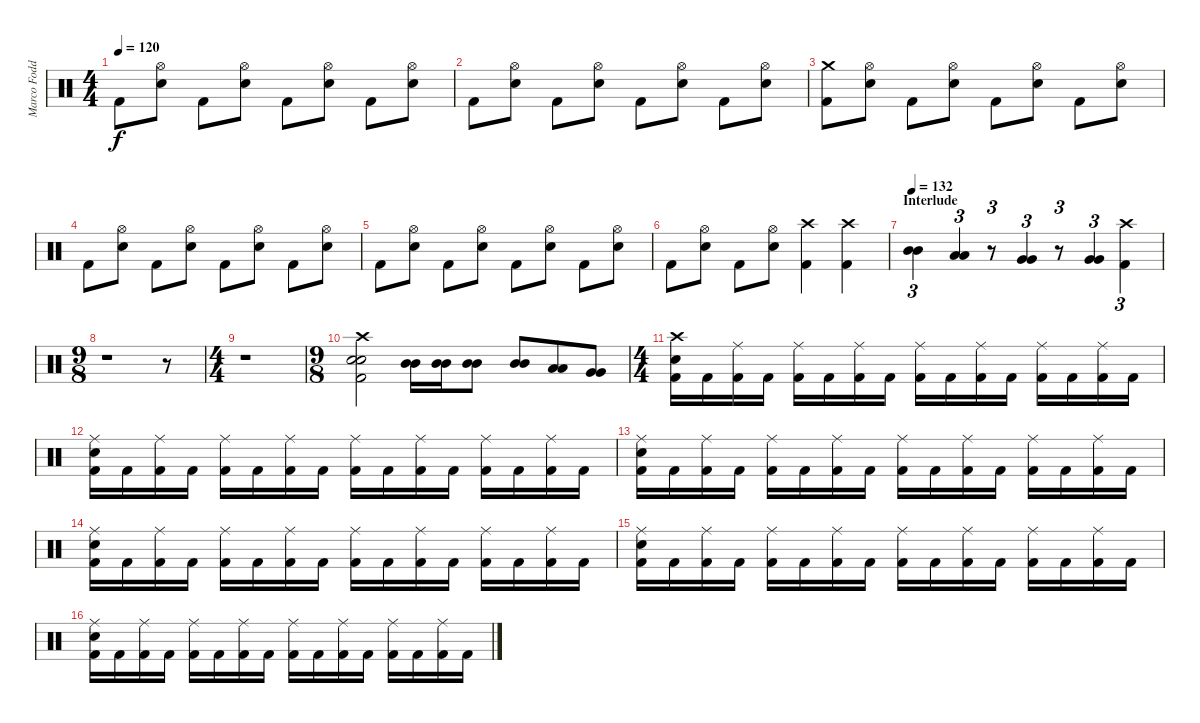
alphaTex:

\track ("Marco Foddis " "Marco Fodd") {instrument percussion}
\staff {score}
\articulation defaults
\ts (4 4)
\tempo 120
\clef neutral
\ks c "Kick (hit) 2".8{dy f}
("Hi-Hat (open)" "Electric Snare (hit)").8 "Kick (hit) 2".8 ("Hi-Hat (open)" "Electric Snare (hit)").8 "Kick (hit) 2".8 ("Hi-Hat (open)" "Electric Snare (hit)").8 "Kick (hit) 2".8 ("Hi-Hat (open)" "Electric Snare (hit)").8 |
"Kick (hit) 2".8 ("Hi-Hat (open)" "Electric Snare (hit)").8 "Kick (hit) 2".8 ("Hi-Hat (open)" "Electric Snare (hit)").8 "Kick (hit) 2".8 ("Hi-Hat (open)" "Electric Snare (hit)").8 "Kick (hit) 2".8 ("Hi-Hat (open)" "Electric Snare (hit)").8 |
("Crash medium (hit)" "Kick (hit) 2").8 ("Hi-Hat (open)" "Electric Snare (hit)").8 "Kick (hit) 2".8 ("Hi-Hat (open)" "Electric Snare (hit)").8 "Kick (hit) 2".8 ("Hi-Hat (open)" "Electric Snare (hit)").8 "Kick (hit) 2".8 ("Hi-Hat (open)" "Electric Snare (hit)").8 |
"Kick (hit) 2".8 ("Hi-Hat (open)" "Electric Snare (hit)").8 "Kick (hit) 2".8 ("Hi-Hat (open)" "Electric Snare (hit)").8 "Kick (hit) 2".8 ("Hi-Hat (open)" "Electric Snare (hit)").8 "Kick (hit) 2".8 ("Hi-Hat (open)" "Electric Snare (hit)").8 |
"Kick (hit) 2".8 ("Hi-Hat (open)" "Electric Snare (hit)").8 "Kick (hit) 2".8 ("Hi-Hat (open)" "Electric Snare (hit)").8 "Kick (hit) 2".8 ("Hi-Hat (open)" "Electric Snare (hit)").8 "Kick (hit) 2".8 ("Hi-Hat (open)" "Electric Snare (hit)").8 |
"Kick (hit) 2".8 ("Hi-Hat (open)" "Electric Snare (hit)").8 "Kick (hit) 2".8 ("Hi-Hat (open)" "Electric Snare (hit)").8 ("Crash high (hit)" "Kick (hit) 2").4 ("Crash high (hit)" "Kick (hit) 2").4 |
\section ("" "Interlude")
\tempo 132
("Mid Tom (hit)" "Mid Tom (hit)").4{tu (3 2)} ("Low Tom (hit)" "Low Tom (hit)").4{tu (3 2)} r.8{tu (3 2)} ("Very Low Tom (hit)" "Very Low Tom (hit)").4{tu (3 2)} r.8{tu (3 2)} ("Very Low Tom (hit)" "Very Low Tom (hit)").4{tu (3 2)} ("Crash high (hit)" "Kick (hit) 2").4{tu (3 2)} |
\ts (9 8)
r.1 r.8 |
\ts (4 4)
r.1 |
\ts (9 8)
("Crash high (hit)" "Electric Snare (hit)" "Electric Snare (hit)" "Kick (hit) 2").2 ("Mid Tom (hit)" "Mid Tom (hit)").16 ("Mid Tom (hit)" "Mid Tom (hit)").16 ("Mid Tom (hit)" "Mid Tom (hit)").8 ("Mid Tom (hit)" "Mid Tom (hit)").8 ("Low Tom (hit)" "Low Tom (hit)").8 ("Very Low Tom (hit)" "Very Low Tom (hit)").8 |
\ts (4 4)
("Crash high (hit)" "Electric Snare (hit)" "Kick (hit) 2").16 "Kick (hit) 2".16 ("Ride (middle)" "Kick (hit) 2").16 "Kick (hit) 2".16 ("Ride (middle)" "Kick (hit) 2").16 "Kick (hit) 2".16 ("Ride (middle)" "Kick (hit) 2").16 "Kick (hit) 2".16 ("Ride (middle)" "Kick (hit) 2").16 "Kick (hit) 2".16 ("Ride (middle)" "Kick (hit) 2").16 "Kick (hit) 2".16 ("Ride (middle)" "Kick (hit) 2").16 "Kick (hit) 2".16 ("Ride (middle)" "Kick (hit) 2").16 "Kick (hit) 2".16 |
("Ride (middle)" "Electric Snare (hit)" "Kick (hit) 2").16 "Kick (hit) 2".16 ("Ride (middle)" "Kick (hit) 2").16 "Kick (hit) 2".16 ("Ride (middle)" "Kick (hit) 2").16 "Kick (hit) 2".16 ("Ride (middle)" "Kick (hit) 2").16 "Kick (hit) 2".16 ("Ride (middle)" "Kick (hit) 2").16 "Kick (hit) 2".16 ("Ride (middle)" "Kick (hit) 2").16 "Kick (hit) 2".16 ("Ride (middle)" "Kick (hit) 2").16 "Kick (hit) 2".16 ("Ride (middle)" "Kick (hit) 2").16 "Kick (hit) 2".16 |
("Ride (middle)" "Electric Snare (hit)" "Kick (hit) 2").16 "Kick (hit) 2".16 ("Ride (middle)" "Kick (hit) 2").16 "Kick (hit) 2".16 ("Ride (middle)" "Kick (hit) 2").16 "Kick (hit) 2".16 ("Ride (middle)" "Kick (hit) 2").16 "Kick (hit) 2".16 ("Ride (middle)" "Kick (hit) 2").16 "Kick (hit) 2".16 ("Ride (middle)" "Kick (hit) 2").16 "Kick (hit) 2".16 ("Ride (middle)" "Kick (hit) 2").16 "Kick (hit) 2".16 ("Ride (middle)" "Kick (hit) 2").16 "Kick (hit) 2".16 |
("Ride (middle)" "Electric Snare (hit)" "Kick (hit) 2").16 "Kick (hit) 2".16 ("Ride (middle)" "Kick (hit) 2").16 "Kick (hit) 2".16 ("Ride (middle)" "Kick (hit) 2").16 "Kick (hit) 2".16 ("Ride (middle)" "Kick (hit) 2").16 "Kick (hit) 2".16 ("Ride (middle)" "Kick (hit) 2").16 "Kick (hit) 2".16 ("Ride (middle)" "Kick (hit) 2").16 "Kick (hit) 2".16 ("Ride (middle)" "Kick (hit) 2").16 "Kick (hit) 2".16 ("Ride (middle)" "Kick (hit) 2").16 "Kick (hit) 2".16 |
("Ride (middle)" "Electric Snare (hit)" "Kick (hit) 2").16 "Kick (hit) 2".16 ("Ride (middle)" "Kick (hit) 2").16 "Kick (hit) 2".16 ("Ride (middle)" "Kick (hit) 2").16 "Kick (hit) 2".16 ("Ride (middle)" "Kick (hit) 2").16 "Kick (hit) 2".16 ("Ride (middle)" "Kick (hit) 2").16 "Kick (hit) 2".16 ("Ride (middle)" "Kick (hit) 2").16 "Kick (hit) 2".16 ("Ride (middle)" "Kick (hit) 2").16 "Kick (hit) 2".16 ("Ride (middle)" "Kick (hit) 2").16 "Kick (hit) 2".16 |
("Ride (middle)" "Electric Snare (hit)" "Kick (hit) 2").16 "Kick (hit) 2".16 ("Ride (middle)" "Kick (hit) 2").16 "Kick (hit) 2".16 ("Ride (middle)" "Kick (hit) 2").16 "Kick (hit) 2".16 ("Ride (middle)" "Kick (hit) 2").16 "Kick (hit) 2".16 ("Ride (middle)" "Kick (hit) 2").16 "Kick (hit) 2".16 ("Ride (middle)" "Kick (hit) 2").16 "Kick (hit) 2".16 ("Ride (middle)" "Kick (hit) 2").16 "Kick (hit) 2".16 ("Ride (middle)" "Kick (hit) 2").16 "Kick (hit) 2".16
